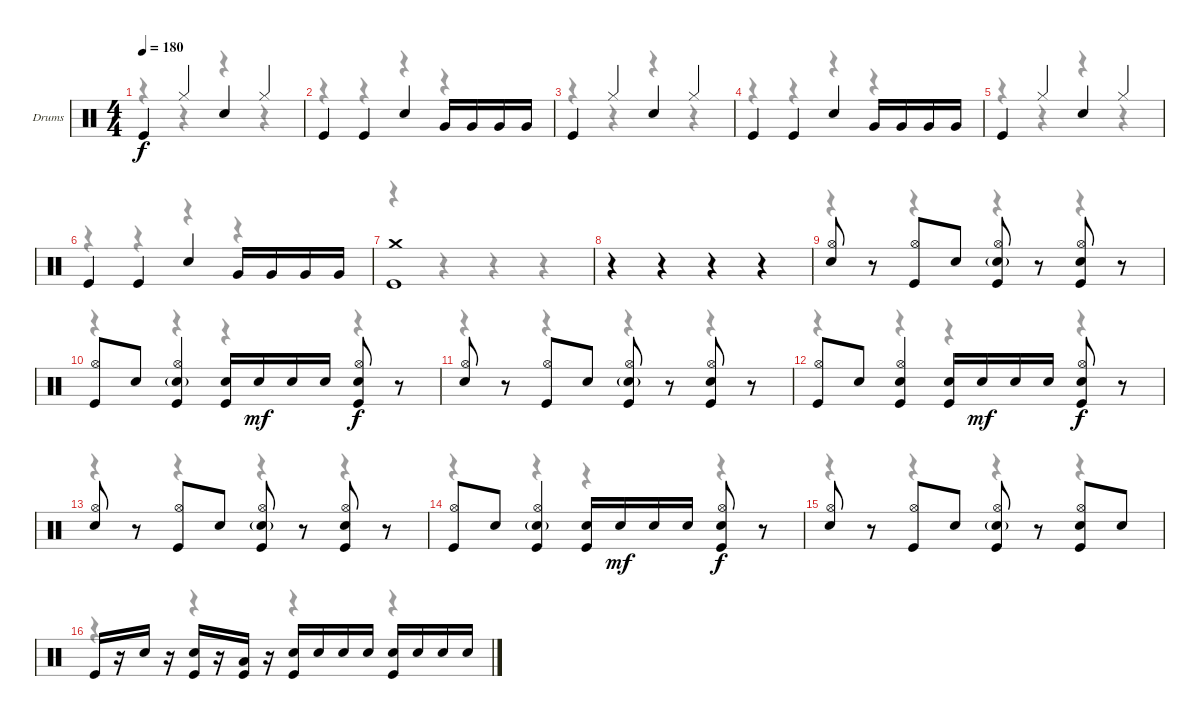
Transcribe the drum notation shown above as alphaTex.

\bracketExtendMode groupsimilarinstruments
\firstSystemTrackNameOrientation horizontal
\otherSystemsTrackNameOrientation horizontal
\track ("Drumkit" "Drums") {instrument percussion}
\staff {score}
\articulation defaults
\voice
\ts (4 4)
\tempo 180
\clef neutral
\ks c "Kick (hit)".4{dy f} "Hi-Hat (closed)".4 "Snare (hit) 2".4 "Hi-Hat (closed)".4
|
"Kick (hit)".4 "Kick (hit)".4 "Snare (hit) 2".4 "Very Low Tom (hit)".16 "Very Low Tom (hit)".16 "Very Low Tom (hit)".16 "Very Low Tom (hit)".16 |
"Kick (hit)".4 "Hi-Hat (closed)".4 "Snare (hit) 2".4 "Hi-Hat (closed)".4 |
"Kick (hit)".4 "Kick (hit)".4 "Snare (hit) 2".4 "Very Low Tom (hit)".16 "Very Low Tom (hit)".16 "Very Low Tom (hit)".16 "Very Low Tom (hit)".16 |
"Kick (hit)".4 "Hi-Hat (closed)".4 "Snare (hit) 2".4 "Hi-Hat (closed)".4 |
"Kick (hit)".4 "Kick (hit)".4 "Snare (hit) 2".4 "Very Low Tom (hit)".16 "Very Low Tom (hit)".16 "Very Low Tom (hit)".16 "Very Low Tom (hit)".16 |
("Crash medium (hit)" "Kick (hit)").1 |
r.4 r.4 r.4 r.4 |
("Hi-Hat (open)" "Snare (hit) 2").8 r.8 ("Hi-Hat (open)" "Kick (hit)").8 "Snare (hit) 2".8 ("Hi-Hat (open)" "Kick (hit)" "Snare (hit) 2"{g}).8 r.8 ("Hi-Hat (open)" "Snare (hit) 2" "Kick (hit)").8 r.8 |
("Hi-Hat (open)" "Kick (hit)").8 "Snare (hit) 2".8 ("Hi-Hat (open)" "Kick (hit)" "Snare (hit) 2"{g}).4 ("Snare (hit) 2" "Kick (hit)").16 "Snare (hit) 2".16{dy mf} "Snare (hit) 2".16 "Snare (hit) 2".16 ("Hi-Hat (open)" "Snare (hit) 2" "Kick (hit)").8{dy f} r.8 |
("Hi-Hat (open)" "Snare (hit) 2").8 r.8 ("Hi-Hat (open)" "Kick (hit)").8 "Snare (hit) 2".8 ("Hi-Hat (open)" "Kick (hit)" "Snare (hit) 2"{g}).8 r.8 ("Hi-Hat (open)" "Snare (hit) 2" "Kick (hit)").8 r.8 |
("Hi-Hat (open)" "Kick (hit)").8 "Snare (hit) 2".8 ("Hi-Hat (open)" "Kick (hit)" "Snare (hit) 2").4 ("Snare (hit) 2" "Kick (hit)").16 "Snare (hit) 2".16{dy mf} "Snare (hit) 2".16 "Snare (hit) 2".16 ("Hi-Hat (open)" "Snare (hit) 2" "Kick (hit)").8{dy f} r.8 |
("Hi-Hat (open)" "Snare (hit) 2").8 r.8 ("Hi-Hat (open)" "Kick (hit)").8 "Snare (hit) 2".8 ("Hi-Hat (open)" "Kick (hit)" "Snare (hit) 2"{g}).8 r.8 ("Hi-Hat (open)" "Snare (hit) 2" "Kick (hit)").8 r.8 |
("Hi-Hat (open)" "Kick (hit)").8 "Snare (hit) 2".8 ("Hi-Hat (open)" "Kick (hit)" "Snare (hit) 2"{g}).4 ("Snare (hit) 2" "Kick (hit)").16 "Snare (hit) 2".16{dy mf} "Snare (hit) 2".16 "Snare (hit) 2".16 ("Hi-Hat (open)" "Snare (hit) 2" "Kick (hit)").8{dy f} r.8 |
("Hi-Hat (open)" "Snare (hit) 2").8 r.8 ("Hi-Hat (open)" "Kick (hit)").8 "Snare (hit) 2".8 ("Hi-Hat (open)" "Kick (hit)" "Snare (hit) 2"{g}).8 r.8 ("Hi-Hat (open)" "Snare (hit) 2" "Kick (hit)").8 "Snare (hit) 2".8 |
"Kick (hit)".16 r.16 "Snare (hit) 2".16 r.16 ("Kick (hit)" "Snare (hit) 2").16 r.16 ("Low Tom (hit)" "Kick (hit)").16 r.16 ("Snare (hit) 2" "Kick (hit)").16 "Snare (hit) 2".16 "Snare (hit) 2".16 "Snare (hit) 2".16 ("Snare (hit) 2" "Kick (hit)").16 "Snare (hit) 2".16 "Snare (hit) 2".16 "Snare (hit) 2".16
\voice
\clef neutral
\ottava regular
\simile none
\ks c
r.4{dy mf} r.4 r.4 r.4 |
r.4 r.4 r.4 r.4 |
r.4 r.4 r.4 r.4 |
r.4 r.4 r.4 r.4 |
r.4 r.4 r.4 r.4 |
r.4 r.4 r.4 r.4 |
r.4 r.4 r.4 r.4 |
r.4 r.4 r.4 r.4 |
r.4 r.4 r.4 r.4 |
r.4 r.4 r.4 r.4 |
r.4 r.4 r.4 r.4 |
r.4 r.4 r.4 r.4 |
r.4 r.4 r.4 r.4 |
r.4 r.4 r.4 r.4 |
r.4 r.4 r.4 r.4 |
r.4 r.4 r.4 r.4
